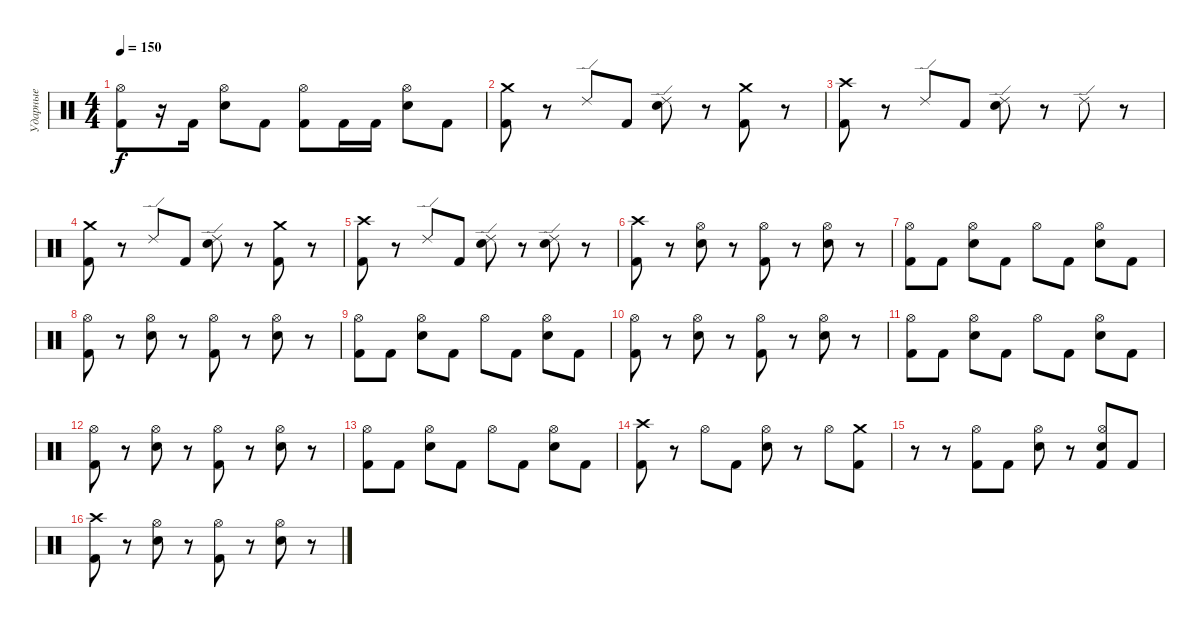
\track ("Ударные" "Ударные") {instrument percussion}
\staff
\articulation defaults
\ts (4 4)
\tempo 150
\clef neutral
\ks c
("Kick (hit) 2" "Hi-Hat (open)").8{dy f} r.16 "Kick (hit) 2".16 ("Snare (hit) 2" "Hi-Hat (open)").8 "Kick (hit) 2".8 ("Kick (hit) 2" "Hi-Hat (open)").8 "Kick (hit) 2".16 "Kick (hit) 2".16 ("Snare (hit) 2" "Hi-Hat (open)").8 "Kick (hit) 2".8 |
("Kick (hit) 2" "Crash medium (hit)").8 r.8 "Ride (edge) 2".8 "Kick (hit) 2".8 ("Snare (hit) 2" "Ride (edge) 2").8 r.8 ("Kick (hit) 2" "Crash medium (hit)").8 r.8 |
("Kick (hit) 2" "Crash high (hit)").8 r.8 "Ride (edge) 2".8 "Kick (hit) 2".8 ("Snare (hit) 2" "Ride (edge) 2").8 r.8 "Ride (edge) 2".8 r.8 |
("Kick (hit) 2" "Crash medium (hit)").8 r.8 "Ride (edge) 2".8 "Kick (hit) 2".8 ("Snare (hit) 2" "Ride (edge) 2").8 r.8 ("Kick (hit) 2" "Crash medium (hit)").8 r.8 |
("Kick (hit) 2" "Crash high (hit)").8 r.8 "Ride (edge) 2".8 "Kick (hit) 2".8 ("Snare (hit) 2" "Ride (edge) 2").8 r.8 ("Snare (hit) 2" "Ride (edge) 2").8 r.8 |
("Kick (hit) 2" "Crash high (hit)").8 r.8 ("Snare (hit) 2" "Hi-Hat (open)").8 r.8 ("Kick (hit) 2" "Hi-Hat (open)").8 r.8 ("Snare (hit) 2" "Hi-Hat (open)").8 r.8 |
("Kick (hit) 2" "Hi-Hat (open)").8 "Kick (hit) 2".8 ("Snare (hit) 2" "Hi-Hat (open)").8 "Kick (hit) 2".8 "Hi-Hat (open)".8 "Kick (hit) 2".8 ("Snare (hit) 2" "Hi-Hat (open)").8 "Kick (hit) 2".8 |
("Kick (hit) 2" "Hi-Hat (open)").8 r.8 ("Snare (hit) 2" "Hi-Hat (open)").8 r.8 ("Kick (hit) 2" "Hi-Hat (open)").8 r.8 ("Snare (hit) 2" "Hi-Hat (open)").8 r.8 |
("Kick (hit) 2" "Hi-Hat (open)").8 "Kick (hit) 2".8 ("Snare (hit) 2" "Hi-Hat (open)").8 "Kick (hit) 2".8 "Hi-Hat (open)".8 "Kick (hit) 2".8 ("Snare (hit) 2" "Hi-Hat (open)").8 "Kick (hit) 2".8 |
("Kick (hit) 2" "Hi-Hat (open)").8 r.8 ("Snare (hit) 2" "Hi-Hat (open)").8 r.8 ("Kick (hit) 2" "Hi-Hat (open)").8 r.8 ("Snare (hit) 2" "Hi-Hat (open)").8 r.8 |
("Kick (hit) 2" "Hi-Hat (open)").8 "Kick (hit) 2".8 ("Snare (hit) 2" "Hi-Hat (open)").8 "Kick (hit) 2".8 "Hi-Hat (open)".8 "Kick (hit) 2".8 ("Snare (hit) 2" "Hi-Hat (open)").8 "Kick (hit) 2".8 |
("Kick (hit) 2" "Hi-Hat (open)").8 r.8 ("Snare (hit) 2" "Hi-Hat (open)").8 r.8 ("Kick (hit) 2" "Hi-Hat (open)").8 r.8 ("Snare (hit) 2" "Hi-Hat (open)").8 r.8 |
("Kick (hit) 2" "Hi-Hat (open)").8 "Kick (hit) 2".8 ("Snare (hit) 2" "Hi-Hat (open)").8 "Kick (hit) 2".8 "Hi-Hat (open)".8 "Kick (hit) 2".8 ("Snare (hit) 2" "Hi-Hat (open)").8 "Kick (hit) 2".8 |
("Kick (hit) 2" "Crash high (hit)").8 r.8 "Hi-Hat (open)".8 "Kick (hit) 2".8 ("Snare (hit) 2" "Hi-Hat (open)").8 r.8 "Hi-Hat (open)".8 ("Kick (hit) 2" "Crash medium (hit)").8 |
r.8 r.8 ("Kick (hit) 2" "Hi-Hat (open)").8 "Kick (hit) 2".8 ("Snare (hit) 2" "Hi-Hat (open)").8 r.8 ("Kick (hit) 2" "Snare (hit) 2" "Hi-Hat (open)").8 "Kick (hit) 2".8 |
("Kick (hit) 2" "Crash high (hit)").8 r.8 ("Snare (hit) 2" "Hi-Hat (open)").8 r.8 ("Kick (hit) 2" "Hi-Hat (open)").8 r.8 ("Snare (hit) 2" "Hi-Hat (open)").8 r.8
